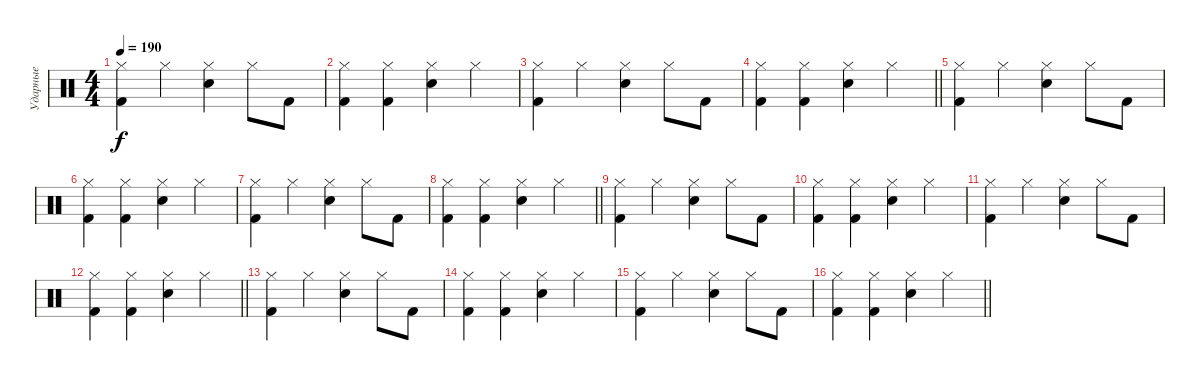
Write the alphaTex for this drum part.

\track ("Ударные" "Ударные") {instrument percussion}
\staff {score}
\articulation defaults
\ts (4 4)
\tempo 190
\clef neutral
\ks c
("Kick (hit) 2" "Hi-Hat (closed)").4{dy f} "Hi-Hat (closed)".4 ("Hand Clap (hit)" "Hi-Hat (closed)").4 "Hi-Hat (closed)".8 "Kick (hit) 2".8 |
("Kick (hit) 2" "Hi-Hat (closed)").4 ("Kick (hit) 2" "Hi-Hat (closed)").4 ("Hand Clap (hit)" "Hi-Hat (closed)").4 "Hi-Hat (closed)".4 |
("Kick (hit) 2" "Hi-Hat (closed)").4 "Hi-Hat (closed)".4 ("Hand Clap (hit)" "Hi-Hat (closed)").4 "Hi-Hat (closed)".8 "Kick (hit) 2".8 |
\barLineRight lightlight
("Kick (hit) 2" "Hi-Hat (closed)").4 ("Kick (hit) 2" "Hi-Hat (closed)").4 ("Hand Clap (hit)" "Hi-Hat (closed)").4 "Hi-Hat (closed)".4 |
("Kick (hit) 2" "Hi-Hat (closed)").4 "Hi-Hat (closed)".4 ("Hand Clap (hit)" "Hi-Hat (closed)").4 "Hi-Hat (closed)".8 "Kick (hit) 2".8 |
("Kick (hit) 2" "Hi-Hat (closed)").4 ("Kick (hit) 2" "Hi-Hat (closed)").4 ("Hand Clap (hit)" "Hi-Hat (closed)").4 "Hi-Hat (closed)".4 |
("Kick (hit) 2" "Hi-Hat (closed)").4 "Hi-Hat (closed)".4 ("Hand Clap (hit)" "Hi-Hat (closed)").4 "Hi-Hat (closed)".8 "Kick (hit) 2".8 |
\barLineRight lightlight
("Kick (hit) 2" "Hi-Hat (closed)").4 ("Kick (hit) 2" "Hi-Hat (closed)").4 ("Hand Clap (hit)" "Hi-Hat (closed)").4 "Hi-Hat (closed)".4 |
("Kick (hit) 2" "Hi-Hat (closed)").4 "Hi-Hat (closed)".4 ("Hand Clap (hit)" "Hi-Hat (closed)").4 "Hi-Hat (closed)".8 "Kick (hit) 2".8 |
("Kick (hit) 2" "Hi-Hat (closed)").4 ("Kick (hit) 2" "Hi-Hat (closed)").4 ("Hand Clap (hit)" "Hi-Hat (closed)").4 "Hi-Hat (closed)".4 |
("Kick (hit) 2" "Hi-Hat (closed)").4 "Hi-Hat (closed)".4 ("Hand Clap (hit)" "Hi-Hat (closed)").4 "Hi-Hat (closed)".8 "Kick (hit) 2".8 |
\barLineRight lightlight
("Kick (hit) 2" "Hi-Hat (closed)").4 ("Kick (hit) 2" "Hi-Hat (closed)").4 ("Hand Clap (hit)" "Hi-Hat (closed)").4 "Hi-Hat (closed)".4 |
("Kick (hit) 2" "Hi-Hat (closed)").4 "Hi-Hat (closed)".4 ("Hand Clap (hit)" "Hi-Hat (closed)").4 "Hi-Hat (closed)".8 "Kick (hit) 2".8 |
("Kick (hit) 2" "Hi-Hat (closed)").4 ("Kick (hit) 2" "Hi-Hat (closed)").4 ("Hand Clap (hit)" "Hi-Hat (closed)").4 "Hi-Hat (closed)".4 |
("Kick (hit) 2" "Hi-Hat (closed)").4 "Hi-Hat (closed)".4 ("Hand Clap (hit)" "Hi-Hat (closed)").4 "Hi-Hat (closed)".8 "Kick (hit) 2".8 |
\barLineRight lightlight
("Kick (hit) 2" "Hi-Hat (closed)").4 ("Kick (hit) 2" "Hi-Hat (closed)").4 ("Hand Clap (hit)" "Hi-Hat (closed)").4 "Hi-Hat (closed)".4
